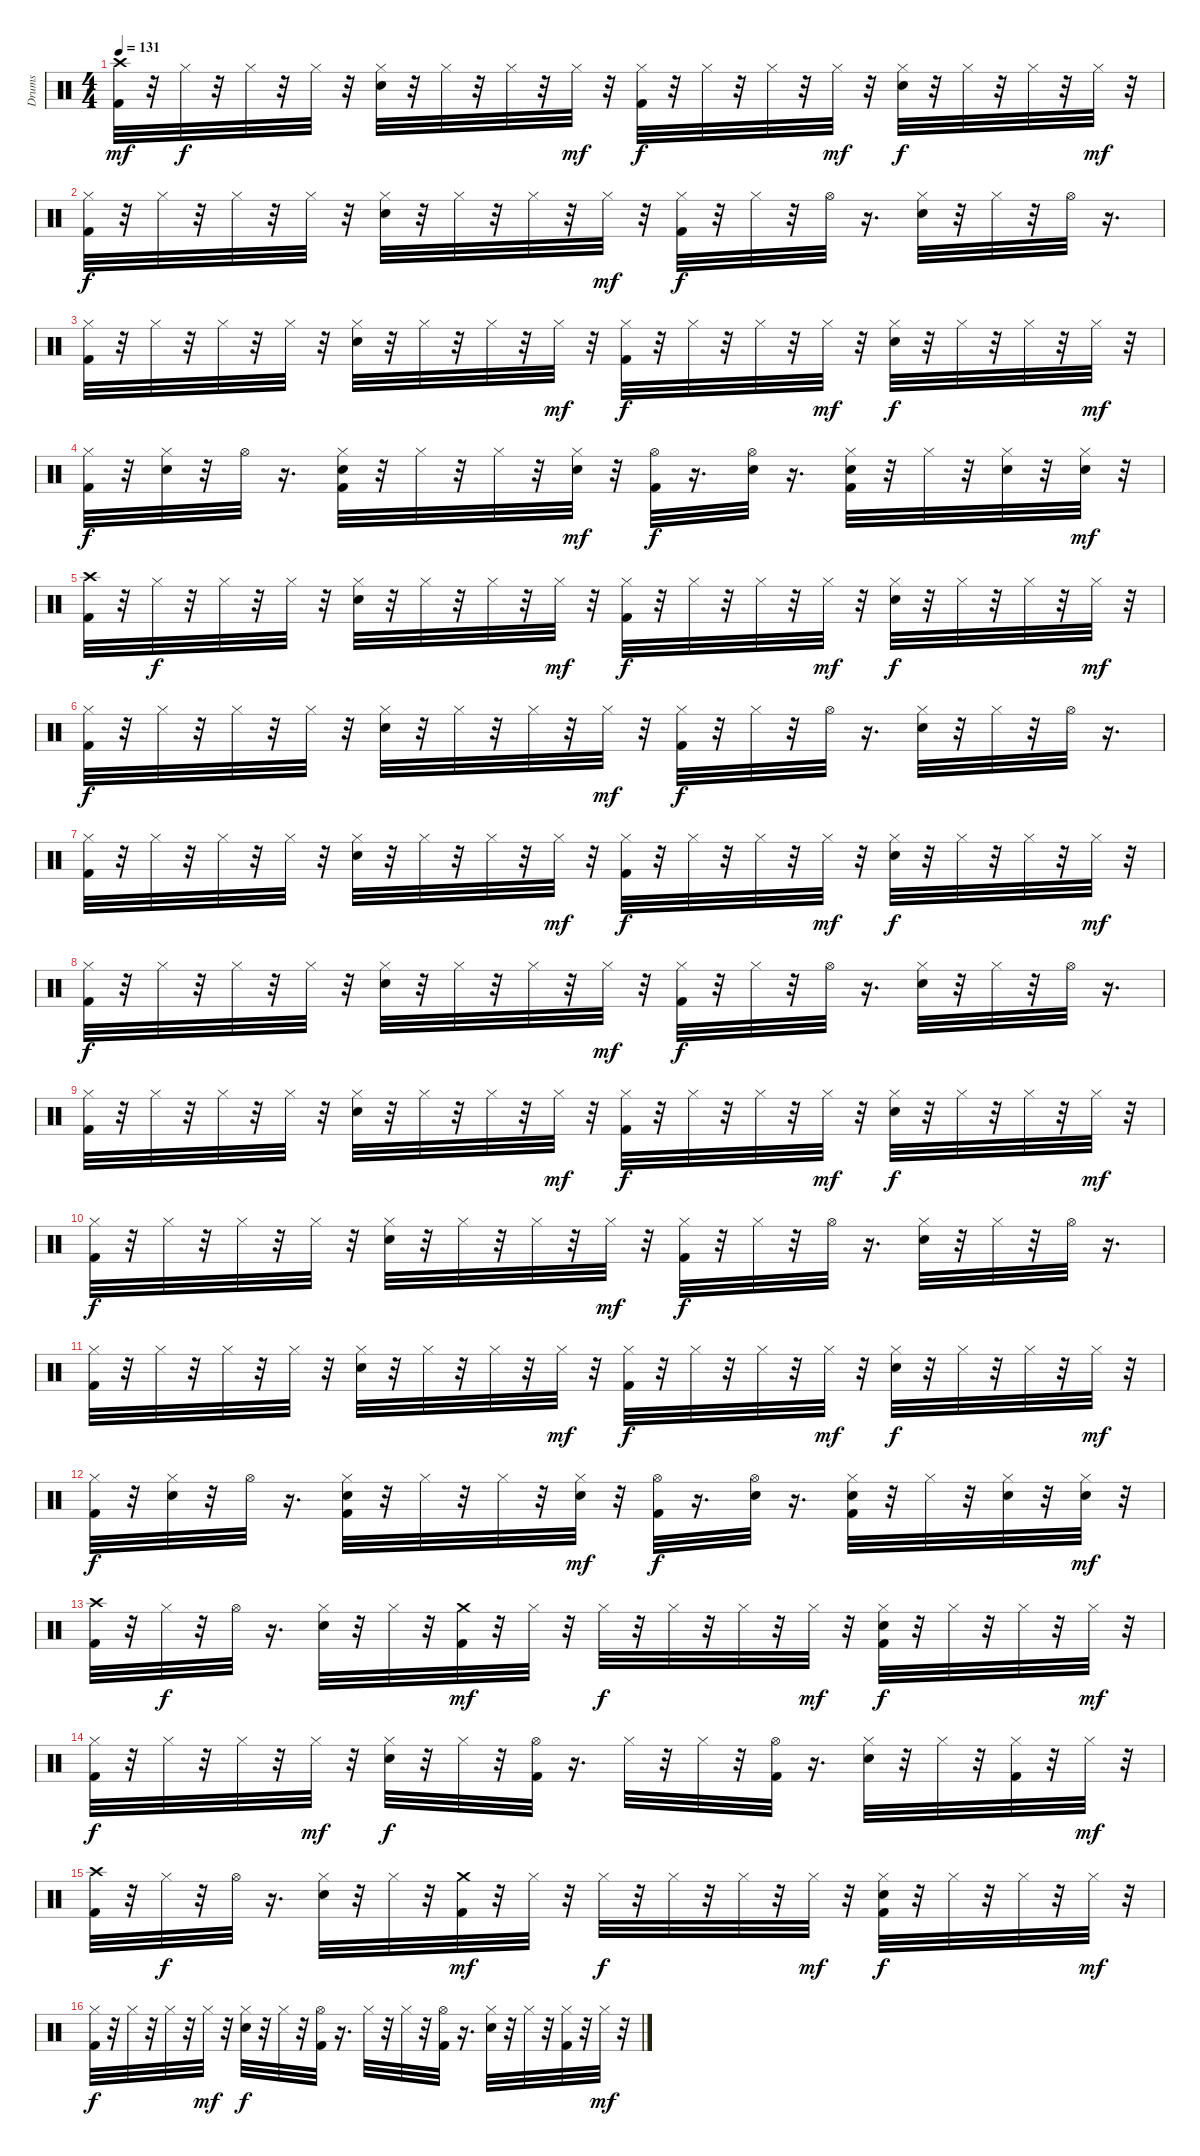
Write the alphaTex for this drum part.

\track ("Drums" "Drums") {instrument percussion}
\staff {score}
\articulation defaults
\ts (4 4)
\tempo 131
\clef neutral
\ks c
("Crash high (hit)" "Kick (hit) 2").32{dy mf} r.32 "Hi-Hat (closed)".32{dy f} r.32 "Hi-Hat (closed)".32 r.32 "Hi-Hat (closed)".32 r.32 ("Hi-Hat (closed)" "Snare (hit) 2").32 r.32 "Hi-Hat (closed)".32 r.32 "Hi-Hat (closed)".32 r.32 "Hi-Hat (closed)".32{dy mf} r.32 ("Hi-Hat (closed)" "Kick (hit) 2").32{dy f} r.32 "Hi-Hat (closed)".32 r.32 "Hi-Hat (closed)".32 r.32 "Hi-Hat (closed)".32{dy mf} r.32 ("Hi-Hat (closed)" "Snare (hit) 2").32{dy f} r.32 "Hi-Hat (closed)".32 r.32 "Hi-Hat (closed)".32 r.32 "Hi-Hat (closed)".32{dy mf} r.32 |
("Kick (hit) 2" "Hi-Hat (closed)").32{dy f} r.32 "Hi-Hat (closed)".32 r.32 "Hi-Hat (closed)".32 r.32 "Hi-Hat (closed)".32 r.32 ("Snare (hit) 2" "Hi-Hat (closed)").32 r.32 "Hi-Hat (closed)".32 r.32 "Hi-Hat (closed)".32 r.32 "Hi-Hat (closed)".32{dy mf} r.32 ("Kick (hit) 2" "Hi-Hat (closed)").32{dy f} r.32 "Hi-Hat (closed)".32 r.32 "Hi-Hat (open)".32 r.16{d} ("Snare (hit) 2" "Hi-Hat (closed)").32 r.32 "Hi-Hat (closed)".32 r.32 "Hi-Hat (open)".32 r.16{d} |
("Kick (hit) 2" "Hi-Hat (closed)").32 r.32 "Hi-Hat (closed)".32 r.32 "Hi-Hat (closed)".32 r.32 "Hi-Hat (closed)".32 r.32 ("Hi-Hat (closed)" "Snare (hit) 2").32 r.32 "Hi-Hat (closed)".32 r.32 "Hi-Hat (closed)".32 r.32 "Hi-Hat (closed)".32{dy mf} r.32 ("Hi-Hat (closed)" "Kick (hit) 2").32{dy f} r.32 "Hi-Hat (closed)".32 r.32 "Hi-Hat (closed)".32 r.32 "Hi-Hat (closed)".32{dy mf} r.32 ("Hi-Hat (closed)" "Snare (hit) 2").32{dy f} r.32 "Hi-Hat (closed)".32 r.32 "Hi-Hat (closed)".32 r.32 "Hi-Hat (closed)".32{dy mf} r.32 |
("Kick (hit) 2" "Hi-Hat (closed)").32{dy f} r.32 ("Snare (hit) 2" "Hi-Hat (closed)").32 r.32 "Hi-Hat (open)".32 r.16{d} ("Kick (hit) 2" "Snare (hit) 2" "Hi-Hat (closed)").32 r.32 "Hi-Hat (closed)".32 r.32 "Hi-Hat (closed)".32 r.32 ("Snare (hit) 2" "Hi-Hat (closed)").32{dy mf} r.32 ("Hi-Hat (open)" "Kick (hit) 2").32{dy f} r.16{d} ("Snare (hit) 2" "Hi-Hat (open)").32 r.16{d} ("Snare (hit) 2" "Hi-Hat (closed)" "Kick (hit) 2").32 r.32 "Hi-Hat (closed)".32 r.32 ("Snare (hit) 2" "Hi-Hat (closed)").32 r.32 ("Snare (hit) 2" "Hi-Hat (closed)").32{dy mf} r.32 |
("Crash high (hit)" "Kick (hit) 2").32 r.32 "Hi-Hat (closed)".32{dy f} r.32 "Hi-Hat (closed)".32 r.32 "Hi-Hat (closed)".32 r.32 ("Hi-Hat (closed)" "Snare (hit) 2").32 r.32 "Hi-Hat (closed)".32 r.32 "Hi-Hat (closed)".32 r.32 "Hi-Hat (closed)".32{dy mf} r.32 ("Hi-Hat (closed)" "Kick (hit) 2").32{dy f} r.32 "Hi-Hat (closed)".32 r.32 "Hi-Hat (closed)".32 r.32 "Hi-Hat (closed)".32{dy mf} r.32 ("Hi-Hat (closed)" "Snare (hit) 2").32{dy f} r.32 "Hi-Hat (closed)".32 r.32 "Hi-Hat (closed)".32 r.32 "Hi-Hat (closed)".32{dy mf} r.32 |
("Kick (hit) 2" "Hi-Hat (closed)").32{dy f} r.32 "Hi-Hat (closed)".32 r.32 "Hi-Hat (closed)".32 r.32 "Hi-Hat (closed)".32 r.32 ("Snare (hit) 2" "Hi-Hat (closed)").32 r.32 "Hi-Hat (closed)".32 r.32 "Hi-Hat (closed)".32 r.32 "Hi-Hat (closed)".32{dy mf} r.32 ("Kick (hit) 2" "Hi-Hat (closed)").32{dy f} r.32 "Hi-Hat (closed)".32 r.32 "Hi-Hat (open)".32 r.16{d} ("Snare (hit) 2" "Hi-Hat (closed)").32 r.32 "Hi-Hat (closed)".32 r.32 "Hi-Hat (open)".32 r.16{d} |
("Kick (hit) 2" "Hi-Hat (closed)").32 r.32 "Hi-Hat (closed)".32 r.32 "Hi-Hat (closed)".32 r.32 "Hi-Hat (closed)".32 r.32 ("Hi-Hat (closed)" "Snare (hit) 2").32 r.32 "Hi-Hat (closed)".32 r.32 "Hi-Hat (closed)".32 r.32 "Hi-Hat (closed)".32{dy mf} r.32 ("Hi-Hat (closed)" "Kick (hit) 2").32{dy f} r.32 "Hi-Hat (closed)".32 r.32 "Hi-Hat (closed)".32 r.32 "Hi-Hat (closed)".32{dy mf} r.32 ("Hi-Hat (closed)" "Snare (hit) 2").32{dy f} r.32 "Hi-Hat (closed)".32 r.32 "Hi-Hat (closed)".32 r.32 "Hi-Hat (closed)".32{dy mf} r.32 |
("Kick (hit) 2" "Hi-Hat (closed)").32{dy f} r.32 "Hi-Hat (closed)".32 r.32 "Hi-Hat (closed)".32 r.32 "Hi-Hat (closed)".32 r.32 ("Snare (hit) 2" "Hi-Hat (closed)").32 r.32 "Hi-Hat (closed)".32 r.32 "Hi-Hat (closed)".32 r.32 "Hi-Hat (closed)".32{dy mf} r.32 ("Kick (hit) 2" "Hi-Hat (closed)").32{dy f} r.32 "Hi-Hat (closed)".32 r.32 "Hi-Hat (open)".32 r.16{d} ("Snare (hit) 2" "Hi-Hat (closed)").32 r.32 "Hi-Hat (closed)".32 r.32 "Hi-Hat (open)".32 r.16{d} |
("Kick (hit) 2" "Hi-Hat (closed)").32 r.32 "Hi-Hat (closed)".32 r.32 "Hi-Hat (closed)".32 r.32 "Hi-Hat (closed)".32 r.32 ("Hi-Hat (closed)" "Snare (hit) 2").32 r.32 "Hi-Hat (closed)".32 r.32 "Hi-Hat (closed)".32 r.32 "Hi-Hat (closed)".32{dy mf} r.32 ("Hi-Hat (closed)" "Kick (hit) 2").32{dy f} r.32 "Hi-Hat (closed)".32 r.32 "Hi-Hat (closed)".32 r.32 "Hi-Hat (closed)".32{dy mf} r.32 ("Hi-Hat (closed)" "Snare (hit) 2").32{dy f} r.32 "Hi-Hat (closed)".32 r.32 "Hi-Hat (closed)".32 r.32 "Hi-Hat (closed)".32{dy mf} r.32 |
("Kick (hit) 2" "Hi-Hat (closed)").32{dy f} r.32 "Hi-Hat (closed)".32 r.32 "Hi-Hat (closed)".32 r.32 "Hi-Hat (closed)".32 r.32 ("Snare (hit) 2" "Hi-Hat (closed)").32 r.32 "Hi-Hat (closed)".32 r.32 "Hi-Hat (closed)".32 r.32 "Hi-Hat (closed)".32{dy mf} r.32 ("Kick (hit) 2" "Hi-Hat (closed)").32{dy f} r.32 "Hi-Hat (closed)".32 r.32 "Hi-Hat (open)".32 r.16{d} ("Snare (hit) 2" "Hi-Hat (closed)").32 r.32 "Hi-Hat (closed)".32 r.32 "Hi-Hat (open)".32 r.16{d} |
("Kick (hit) 2" "Hi-Hat (closed)").32 r.32 "Hi-Hat (closed)".32 r.32 "Hi-Hat (closed)".32 r.32 "Hi-Hat (closed)".32 r.32 ("Hi-Hat (closed)" "Snare (hit) 2").32 r.32 "Hi-Hat (closed)".32 r.32 "Hi-Hat (closed)".32 r.32 "Hi-Hat (closed)".32{dy mf} r.32 ("Hi-Hat (closed)" "Kick (hit) 2").32{dy f} r.32 "Hi-Hat (closed)".32 r.32 "Hi-Hat (closed)".32 r.32 "Hi-Hat (closed)".32{dy mf} r.32 ("Hi-Hat (closed)" "Snare (hit) 2").32{dy f} r.32 "Hi-Hat (closed)".32 r.32 "Hi-Hat (closed)".32 r.32 "Hi-Hat (closed)".32{dy mf} r.32 |
("Kick (hit) 2" "Hi-Hat (closed)").32{dy f} r.32 ("Snare (hit) 2" "Hi-Hat (closed)").32 r.32 "Hi-Hat (open)".32 r.16{d} ("Kick (hit) 2" "Snare (hit) 2" "Hi-Hat (closed)").32 r.32 "Hi-Hat (closed)".32 r.32 "Hi-Hat (closed)".32 r.32 ("Snare (hit) 2" "Hi-Hat (closed)").32{dy mf} r.32 ("Hi-Hat (open)" "Kick (hit) 2").32{dy f} r.16{d} ("Snare (hit) 2" "Hi-Hat (open)").32 r.16{d} ("Snare (hit) 2" "Hi-Hat (closed)" "Kick (hit) 2").32 r.32 "Hi-Hat (closed)".32 r.32 ("Snare (hit) 2" "Hi-Hat (closed)").32 r.32 ("Snare (hit) 2" "Hi-Hat (closed)").32{dy mf} r.32 |
("Kick (hit) 2" "Crash high (hit)").32 r.32 "Hi-Hat (closed)".32{dy f} r.32 "Hi-Hat (open)".32 r.16{d} ("Snare (hit) 2" "Hi-Hat (closed)").32 r.32 "Hi-Hat (closed)".32 r.32 ("Crash medium (hit)" "Kick (hit) 2").32{dy mf} r.32 "Hi-Hat (closed)".32 r.32 "Hi-Hat (closed)".32{dy f} r.32 "Hi-Hat (closed)".32 r.32 "Hi-Hat (closed)".32 r.32 "Hi-Hat (closed)".32{dy mf} r.32 ("Snare (hit) 2" "Hi-Hat (closed)" "Kick (hit) 2").32{dy f} r.32 "Hi-Hat (closed)".32 r.32 "Hi-Hat (closed)".32 r.32 "Hi-Hat (closed)".32{dy mf} r.32 |
("Kick (hit) 2" "Hi-Hat (closed)").32{dy f} r.32 "Hi-Hat (closed)".32 r.32 "Hi-Hat (closed)".32 r.32 "Hi-Hat (closed)".32{dy mf} r.32 ("Hi-Hat (closed)" "Snare (hit) 2").32{dy f} r.32 "Hi-Hat (closed)".32 r.32 ("Kick (hit) 2" "Hi-Hat (open)").32 r.16{d} "Hi-Hat (closed)".32 r.32 "Hi-Hat (closed)".32 r.32 ("Hi-Hat (open)" "Kick (hit) 2").32 r.16{d} ("Hi-Hat (closed)" "Snare (hit) 2").32 r.32 "Hi-Hat (closed)".32 r.32 ("Hi-Hat (closed)" "Kick (hit) 2").32 r.32 "Hi-Hat (closed)".32{dy mf} r.32 |
("Kick (hit) 2" "Crash high (hit)").32 r.32 "Hi-Hat (closed)".32{dy f} r.32 "Hi-Hat (open)".32 r.16{d} ("Snare (hit) 2" "Hi-Hat (closed)").32 r.32 "Hi-Hat (closed)".32 r.32 ("Crash medium (hit)" "Kick (hit) 2").32{dy mf} r.32 "Hi-Hat (closed)".32 r.32 "Hi-Hat (closed)".32{dy f} r.32 "Hi-Hat (closed)".32 r.32 "Hi-Hat (closed)".32 r.32 "Hi-Hat (closed)".32{dy mf} r.32 ("Snare (hit) 2" "Hi-Hat (closed)" "Kick (hit) 2").32{dy f} r.32 "Hi-Hat (closed)".32 r.32 "Hi-Hat (closed)".32 r.32 "Hi-Hat (closed)".32{dy mf} r.32 |
("Kick (hit) 2" "Hi-Hat (closed)").32{dy f} r.32 "Hi-Hat (closed)".32 r.32 "Hi-Hat (closed)".32 r.32 "Hi-Hat (closed)".32{dy mf} r.32 ("Hi-Hat (closed)" "Snare (hit) 2").32{dy f} r.32 "Hi-Hat (closed)".32 r.32 ("Kick (hit) 2" "Hi-Hat (open)").32 r.16{d} "Hi-Hat (closed)".32 r.32 "Hi-Hat (closed)".32 r.32 ("Hi-Hat (open)" "Kick (hit) 2").32 r.16{d} ("Hi-Hat (closed)" "Snare (hit) 2").32 r.32 "Hi-Hat (closed)".32 r.32 ("Hi-Hat (closed)" "Kick (hit) 2").32 r.32 "Hi-Hat (closed)".32{dy mf} r.32
